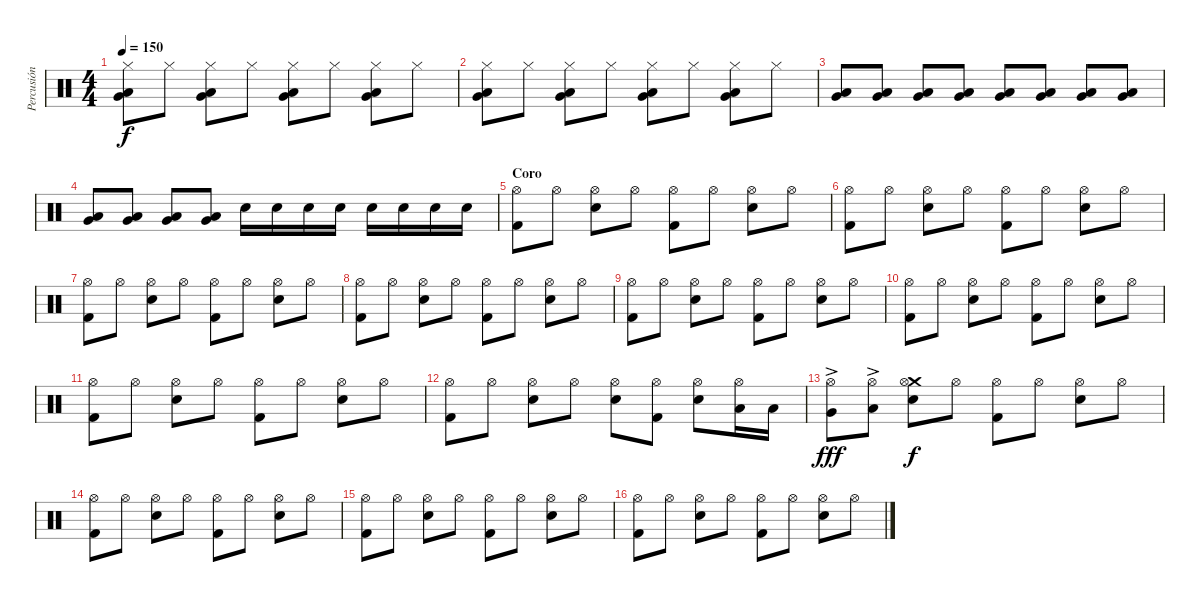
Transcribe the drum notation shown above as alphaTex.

\track ("Percusión" "Percusión") {instrument percussion}
\staff {score}
\articulation defaults
\ts (4 4)
\tempo 150
\clef neutral
\ks c
("Hi-Hat (closed)" "Very Low Tom (hit)" "Low Tom (hit)").8{dy f volume 8} "Hi-Hat (closed)".8 ("Hi-Hat (closed)" "Very Low Tom (hit)" "Low Tom (hit)").8 "Hi-Hat (closed)".8 ("Hi-Hat (closed)" "Very Low Tom (hit)" "Low Tom (hit)").8 "Hi-Hat (closed)".8 ("Hi-Hat (closed)" "Very Low Tom (hit)" "Low Tom (hit)").8 "Hi-Hat (closed)".8 |
("Hi-Hat (closed)" "Very Low Tom (hit)" "Low Tom (hit)").8{volume 8} "Hi-Hat (closed)".8 ("Hi-Hat (closed)" "Very Low Tom (hit)" "Low Tom (hit)").8 "Hi-Hat (closed)".8 ("Hi-Hat (closed)" "Very Low Tom (hit)" "Low Tom (hit)").8 "Hi-Hat (closed)".8 ("Hi-Hat (closed)" "Very Low Tom (hit)" "Low Tom (hit)").8 "Hi-Hat (closed)".8 |
("Very Low Tom (hit)" "Low Tom (hit)").8{volume 16} ("Very Low Tom (hit)" "Low Tom (hit)").8 ("Very Low Tom (hit)" "Low Tom (hit)").8 ("Very Low Tom (hit)" "Low Tom (hit)").8 ("Very Low Tom (hit)" "Low Tom (hit)").8 ("Very Low Tom (hit)" "Low Tom (hit)").8 ("Very Low Tom (hit)" "Low Tom (hit)").8 ("Very Low Tom (hit)" "Low Tom (hit)").8 |
("Very Low Tom (hit)" "Low Tom (hit)").8 ("Very Low Tom (hit)" "Low Tom (hit)").8 ("Very Low Tom (hit)" "Low Tom (hit)").8 ("Very Low Tom (hit)" "Low Tom (hit)").8 "Snare (hit) 2".16 "Snare (hit) 2".16 "Snare (hit) 2".16 "Snare (hit) 2".16 "Snare (hit) 2".16 "Snare (hit) 2".16 "Snare (hit) 2".16 "Snare (hit) 2".16 |
\section ("" "Coro")
("Kick (hit) 2" "Hi-Hat (open)").8 "Hi-Hat (open)".8 ("Snare (hit) 2" "Hi-Hat (open)").8 "Hi-Hat (open)".8 ("Kick (hit) 2" "Hi-Hat (open)").8 "Hi-Hat (open)".8 ("Snare (hit) 2" "Hi-Hat (open)").8 "Hi-Hat (open)".8 |
("Kick (hit) 2" "Hi-Hat (open)").8 "Hi-Hat (open)".8 ("Snare (hit) 2" "Hi-Hat (open)").8 "Hi-Hat (open)".8 ("Kick (hit) 2" "Hi-Hat (open)").8 "Hi-Hat (open)".8 ("Snare (hit) 2" "Hi-Hat (open)").8 "Hi-Hat (open)".8 |
("Kick (hit) 2" "Hi-Hat (open)").8 "Hi-Hat (open)".8 ("Snare (hit) 2" "Hi-Hat (open)").8 "Hi-Hat (open)".8 ("Kick (hit) 2" "Hi-Hat (open)").8 "Hi-Hat (open)".8 ("Snare (hit) 2" "Hi-Hat (open)").8 "Hi-Hat (open)".8 |
("Kick (hit) 2" "Hi-Hat (open)").8 "Hi-Hat (open)".8 ("Snare (hit) 2" "Hi-Hat (open)").8 "Hi-Hat (open)".8 ("Kick (hit) 2" "Hi-Hat (open)").8 "Hi-Hat (open)".8 ("Snare (hit) 2" "Hi-Hat (open)").8 "Hi-Hat (open)".8 |
("Kick (hit) 2" "Hi-Hat (open)").8 "Hi-Hat (open)".8 ("Snare (hit) 2" "Hi-Hat (open)").8 "Hi-Hat (open)".8 ("Kick (hit) 2" "Hi-Hat (open)").8 "Hi-Hat (open)".8 ("Snare (hit) 2" "Hi-Hat (open)").8 "Hi-Hat (open)".8 |
("Kick (hit) 2" "Hi-Hat (open)").8 "Hi-Hat (open)".8 ("Snare (hit) 2" "Hi-Hat (open)").8 "Hi-Hat (open)".8 ("Kick (hit) 2" "Hi-Hat (open)").8 "Hi-Hat (open)".8 ("Snare (hit) 2" "Hi-Hat (open)").8 "Hi-Hat (open)".8 |
("Kick (hit) 2" "Hi-Hat (open)").8 "Hi-Hat (open)".8 ("Snare (hit) 2" "Hi-Hat (open)").8 "Hi-Hat (open)".8 ("Kick (hit) 2" "Hi-Hat (open)").8 "Hi-Hat (open)".8 ("Snare (hit) 2" "Hi-Hat (open)").8 "Hi-Hat (open)".8 |
("Kick (hit) 2" "Hi-Hat (open)").8 "Hi-Hat (open)".8 ("Snare (hit) 2" "Hi-Hat (open)").8 "Hi-Hat (open)".8 ("Snare (hit) 2" "Hi-Hat (open)").8 ("Kick (hit) 2" "Hi-Hat (open)").8 ("Snare (hit) 2" "Hi-Hat (open)").8 ("Low Tom (hit)" "Hi-Hat (open)").16 "Low Tom (hit)".16 |
("Very Low Tom (hit)"{ac} "Hi-Hat (open)").8{dy fff} ("Low Floor Tom (hit)"{ac} "Hi-Hat (open)").8 ("Crash medium (hit)" "Snare (hit) 2" "Hi-Hat (open)").8{dy f} "Hi-Hat (open)".8 ("Kick (hit) 2" "Hi-Hat (open)").8 "Hi-Hat (open)".8 ("Snare (hit) 2" "Hi-Hat (open)").8 "Hi-Hat (open)".8 |
("Kick (hit) 2" "Hi-Hat (open)").8 "Hi-Hat (open)".8 ("Snare (hit) 2" "Hi-Hat (open)").8 "Hi-Hat (open)".8 ("Kick (hit) 2" "Hi-Hat (open)").8 "Hi-Hat (open)".8 ("Snare (hit) 2" "Hi-Hat (open)").8 "Hi-Hat (open)".8 |
("Kick (hit) 2" "Hi-Hat (open)").8 "Hi-Hat (open)".8 ("Snare (hit) 2" "Hi-Hat (open)").8 "Hi-Hat (open)".8 ("Kick (hit) 2" "Hi-Hat (open)").8 "Hi-Hat (open)".8 ("Snare (hit) 2" "Hi-Hat (open)").8 "Hi-Hat (open)".8 |
("Kick (hit) 2" "Hi-Hat (open)").8 "Hi-Hat (open)".8 ("Snare (hit) 2" "Hi-Hat (open)").8 "Hi-Hat (open)".8 ("Kick (hit) 2" "Hi-Hat (open)").8 "Hi-Hat (open)".8 ("Snare (hit) 2" "Hi-Hat (open)").8 "Hi-Hat (open)".8
